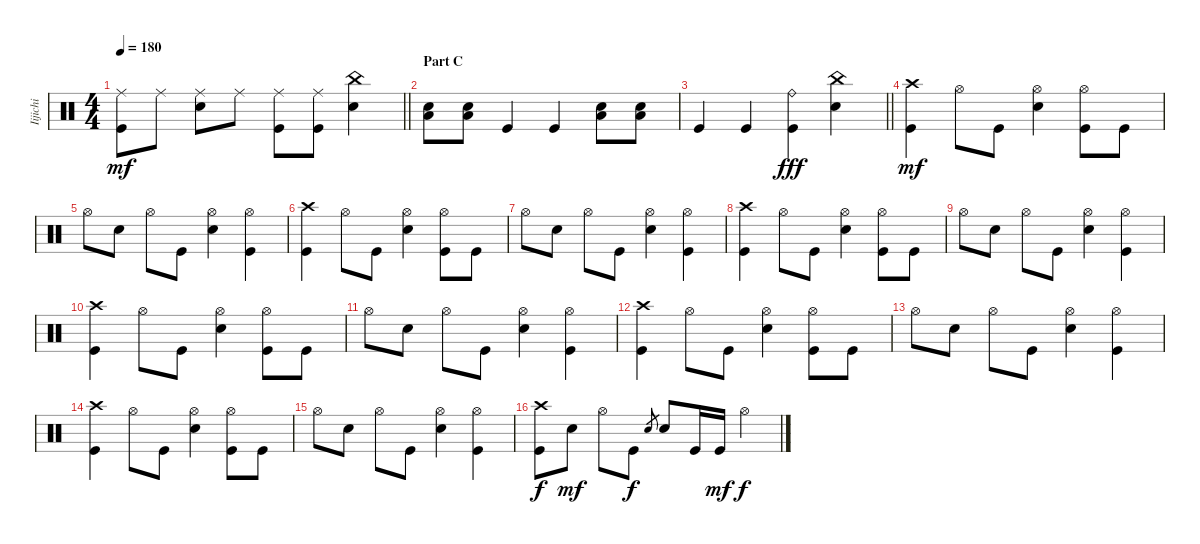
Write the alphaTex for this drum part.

\track ("Iijichi" "Iijichi") {instrument percussion}
\staff {score}
\articulation defaults
\ts (4 4)
\tempo 180
\clef neutral
\barLineRight lightlight
\ks c
("Kick (hit)" "Ride (middle)").8{dy mf} "Ride (middle)".8 ("Electric Snare (hit)" "Ride (middle)").8 "Ride (middle)".8 ("Kick (hit)" "Ride (middle)").8 ("Ride (middle)" "Kick (hit)").8 ("China (hit)" "Electric Snare (hit)").4 |
\section ("" "Part C")
("Electric Snare (hit)" "Low Floor Tom (hit)").8 ("Electric Snare (hit)" "Low Floor Tom (hit)").8 "Kick (hit)".4 "Kick (hit)".4 ("Electric Snare (hit)" "Low Floor Tom (hit)").8 ("Electric Snare (hit)" "Low Floor Tom (hit)").8 |
\barLineRight lightlight "Kick (hit)".4 "Kick (hit)".4
("Ride (bell)" "Kick (hit)").4{dy fff} ("Electric Snare (hit)" "China (hit)").4 |
("Crash high (hit)" "Kick (hit)").4{dy mf} "Hi-Hat (open)".8 "Kick (hit)".8 ("Hi-Hat (open)" "Electric Snare (hit)").4 ("Hi-Hat (open)" "Kick (hit)").8 "Kick (hit)".8 |
"Hi-Hat (open)".8 "Electric Snare (hit)".8 "Hi-Hat (open)".8 "Kick (hit)".8 ("Hi-Hat (open)" "Electric Snare (hit)").4 ("Hi-Hat (open)" "Kick (hit)").4 |
("Crash high (hit)" "Kick (hit)").4 "Hi-Hat (open)".8 "Kick (hit)".8 ("Hi-Hat (open)" "Electric Snare (hit)").4 ("Hi-Hat (open)" "Kick (hit)").8 "Kick (hit)".8 |
"Hi-Hat (open)".8 "Electric Snare (hit)".8 "Hi-Hat (open)".8 "Kick (hit)".8 ("Hi-Hat (open)" "Electric Snare (hit)").4 ("Hi-Hat (open)" "Kick (hit)").4 |
("Crash high (hit)" "Kick (hit)").4 "Hi-Hat (open)".8 "Kick (hit)".8 ("Hi-Hat (open)" "Electric Snare (hit)").4 ("Hi-Hat (open)" "Kick (hit)").8 "Kick (hit)".8 |
"Hi-Hat (open)".8 "Electric Snare (hit)".8 "Hi-Hat (open)".8 "Kick (hit)".8 ("Hi-Hat (open)" "Electric Snare (hit)").4 ("Hi-Hat (open)" "Kick (hit)").4 |
("Crash high (hit)" "Kick (hit)").4 "Hi-Hat (open)".8 "Kick (hit)".8 ("Hi-Hat (open)" "Electric Snare (hit)").4 ("Hi-Hat (open)" "Kick (hit)").8 "Kick (hit)".8 |
"Hi-Hat (open)".8 "Electric Snare (hit)".8 "Hi-Hat (open)".8 "Kick (hit)".8 ("Hi-Hat (open)" "Electric Snare (hit)").4 ("Hi-Hat (open)" "Kick (hit)").4 |
("Crash high (hit)" "Kick (hit)").4 "Hi-Hat (open)".8 "Kick (hit)".8 ("Hi-Hat (open)" "Electric Snare (hit)").4 ("Hi-Hat (open)" "Kick (hit)").8 "Kick (hit)".8 |
"Hi-Hat (open)".8 "Electric Snare (hit)".8 "Hi-Hat (open)".8 "Kick (hit)".8 ("Hi-Hat (open)" "Electric Snare (hit)").4 ("Hi-Hat (open)" "Kick (hit)").4 |
("Crash high (hit)" "Kick (hit)").4 "Hi-Hat (open)".8 "Kick (hit)".8 ("Hi-Hat (open)" "Electric Snare (hit)").4 ("Hi-Hat (open)" "Kick (hit)").8 "Kick (hit)".8 |
"Hi-Hat (open)".8 "Electric Snare (hit)".8 "Hi-Hat (open)".8 "Kick (hit)".8 ("Hi-Hat (open)" "Electric Snare (hit)").4 ("Hi-Hat (open)" "Kick (hit)").4 |
("Crash high (hit)" "Kick (hit)").8{dy f} "Electric Snare (hit)".8{dy mf} "Hi-Hat (open)".8 "Kick (hit)".8{dy f} "Electric Snare (hit)".8{gr} "Electric Snare (hit)".8 "Kick (hit)".16 "Kick (hit)".16{dy mf} "Hi-Hat (open)".4{dy f}
